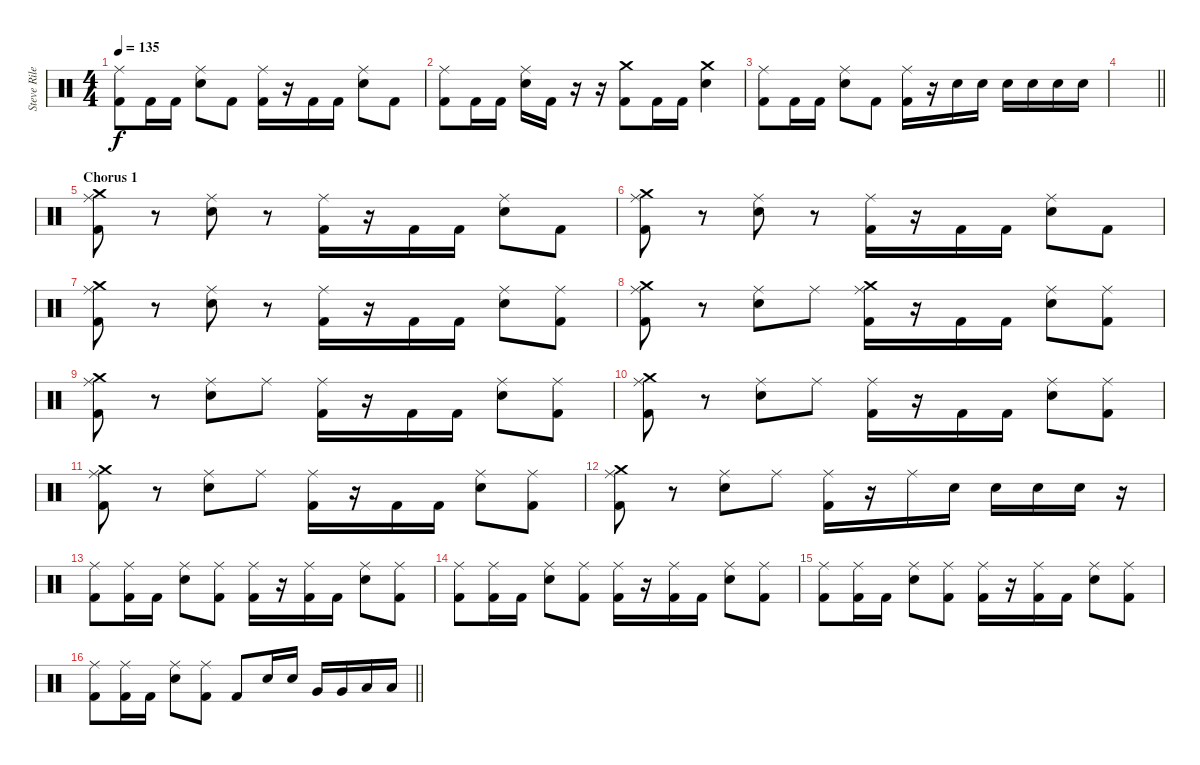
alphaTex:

\track ("Steve Riley" "Steve Rile") {instrument percussion}
\staff {score}
\articulation defaults
\ts (4 4)
\tempo 135
\clef neutral
\ks c
("Ride (middle)" "Kick (hit) 2").8{dy f} "Kick (hit) 2".16 "Kick (hit) 2".16 ("Ride (middle)" "Snare (hit) 2").8 "Kick (hit) 2".8 ("Ride (middle)" "Kick (hit) 2").16 r.16 "Kick (hit) 2".16 "Kick (hit) 2".16 ("Ride (middle)" "Snare (hit) 2").8 "Kick (hit) 2".8 |
("Ride (middle)" "Kick (hit) 2").8 "Kick (hit) 2".16 "Kick (hit) 2".16 ("Ride (middle)" "Snare (hit) 2").16 "Kick (hit) 2".16 r.16 r.16 ("Crash medium (hit)" "Kick (hit) 2").8 "Kick (hit) 2".16 "Kick (hit) 2".16 ("Crash medium (hit)" "Snare (hit) 2").4 |
("Ride (middle)" "Kick (hit) 2").8 "Kick (hit) 2".16 "Kick (hit) 2".16 ("Ride (middle)" "Snare (hit) 2").8 "Kick (hit) 2".8 ("Ride (middle)" "Kick (hit) 2").16 r.16 "Snare (hit) 2".16 "Snare (hit) 2".16 "Snare (hit) 2".16 "Snare (hit) 2".16 "Snare (hit) 2".16 "Snare (hit) 2".16 |
\barLineRight lightlight
|
\section ("" "Chorus 1")
("Crash medium (hit)" "Ride (middle)" "Kick (hit) 2").8 r.8 ("Ride (middle)" "Snare (hit) 2").8 r.8 ("Ride (middle)" "Kick (hit) 2").16 r.16 "Kick (hit) 2".16 "Kick (hit) 2".16 ("Ride (middle)" "Snare (hit) 2").8 "Kick (hit) 2".8 |
("Crash medium (hit)" "Ride (middle)" "Kick (hit) 2").8 r.8 ("Ride (middle)" "Snare (hit) 2").8 r.8 ("Ride (middle)" "Kick (hit) 2").16 r.16 "Kick (hit) 2".16 "Kick (hit) 2".16 ("Ride (middle)" "Snare (hit) 2").8 "Kick (hit) 2".8 |
("Crash medium (hit)" "Ride (middle)" "Kick (hit) 2").8 r.8 ("Ride (middle)" "Snare (hit) 2").8 r.8 ("Ride (middle)" "Kick (hit) 2").16 r.16 "Kick (hit) 2".16 "Kick (hit) 2".16 ("Ride (middle)" "Snare (hit) 2").8 ("Ride (middle)" "Kick (hit) 2").8 |
("Crash medium (hit)" "Ride (middle)" "Kick (hit) 2").8 r.8 ("Ride (middle)" "Snare (hit) 2").8 "Ride (middle)".8 ("Crash medium (hit)" "Ride (middle)" "Kick (hit) 2").16 r.16 "Kick (hit) 2".16 "Kick (hit) 2".16 ("Ride (middle)" "Snare (hit) 2").8 ("Ride (middle)" "Kick (hit) 2").8 |
("Crash medium (hit)" "Ride (middle)" "Kick (hit) 2").8 r.8 ("Ride (middle)" "Snare (hit) 2").8 "Ride (middle)".8 ("Ride (middle)" "Kick (hit) 2").16 r.16 "Kick (hit) 2".16 "Kick (hit) 2".16 ("Ride (middle)" "Snare (hit) 2").8 ("Ride (middle)" "Kick (hit) 2").8 |
("Crash medium (hit)" "Ride (middle)" "Kick (hit) 2").8 r.8 ("Ride (middle)" "Snare (hit) 2").8 "Ride (middle)".8 ("Ride (middle)" "Kick (hit) 2").16 r.16 "Kick (hit) 2".16 "Kick (hit) 2".16 ("Ride (middle)" "Snare (hit) 2").8 ("Ride (middle)" "Kick (hit) 2").8 |
("Crash medium (hit)" "Ride (middle)" "Kick (hit) 2").8 r.8 ("Ride (middle)" "Snare (hit) 2").8 "Ride (middle)".8 ("Ride (middle)" "Kick (hit) 2").16 r.16 "Kick (hit) 2".16 "Kick (hit) 2".16 ("Ride (middle)" "Snare (hit) 2").8 ("Ride (middle)" "Kick (hit) 2").8 |
("Crash medium (hit)" "Ride (middle)" "Kick (hit) 2").8 r.8 ("Ride (middle)" "Snare (hit) 2").8 "Ride (middle)".8 ("Ride (middle)" "Kick (hit) 2").16 r.16 "Ride (middle)".16 "Snare (hit) 2".16 "Snare (hit) 2".16 "Snare (hit) 2".16 "Snare (hit) 2".16 r.16 |
("Ride (middle)" "Kick (hit) 2").8 ("Ride (middle)" "Kick (hit) 2").16 "Kick (hit) 2".16 ("Ride (middle)" "Snare (hit) 2").8 ("Ride (middle)" "Kick (hit) 2").8 ("Ride (middle)" "Kick (hit) 2").16 r.16 ("Ride (middle)" "Kick (hit) 2").16 "Kick (hit) 2".16 ("Ride (middle)" "Snare (hit) 2").8 ("Ride (middle)" "Kick (hit) 2").8 |
("Ride (middle)" "Kick (hit) 2").8 ("Ride (middle)" "Kick (hit) 2").16 "Kick (hit) 2".16 ("Ride (middle)" "Snare (hit) 2").8 ("Ride (middle)" "Kick (hit) 2").8 ("Ride (middle)" "Kick (hit) 2").16 r.16 ("Ride (middle)" "Kick (hit) 2").16 "Kick (hit) 2".16 ("Ride (middle)" "Snare (hit) 2").8 ("Ride (middle)" "Kick (hit) 2").8 |
("Ride (middle)" "Kick (hit) 2").8 ("Ride (middle)" "Kick (hit) 2").16 "Kick (hit) 2".16 ("Ride (middle)" "Snare (hit) 2").8 ("Ride (middle)" "Kick (hit) 2").8 ("Ride (middle)" "Kick (hit) 2").16 r.16 ("Ride (middle)" "Kick (hit) 2").16 "Kick (hit) 2".16 ("Ride (middle)" "Snare (hit) 2").8 ("Ride (middle)" "Kick (hit) 2").8 |
\barLineRight lightlight
("Ride (middle)" "Kick (hit) 2").8 ("Ride (middle)" "Kick (hit) 2").16 "Kick (hit) 2".16 ("Ride (middle)" "Snare (hit) 2").8 ("Ride (middle)" "Kick (hit) 2").8 "Kick (hit) 2".8 "Snare (hit) 2".16 "Snare (hit) 2".16 "Very Low Tom (hit)".16 "Very Low Tom (hit)".16 "Low Floor Tom (hit)".16 "Low Floor Tom (hit)".16
